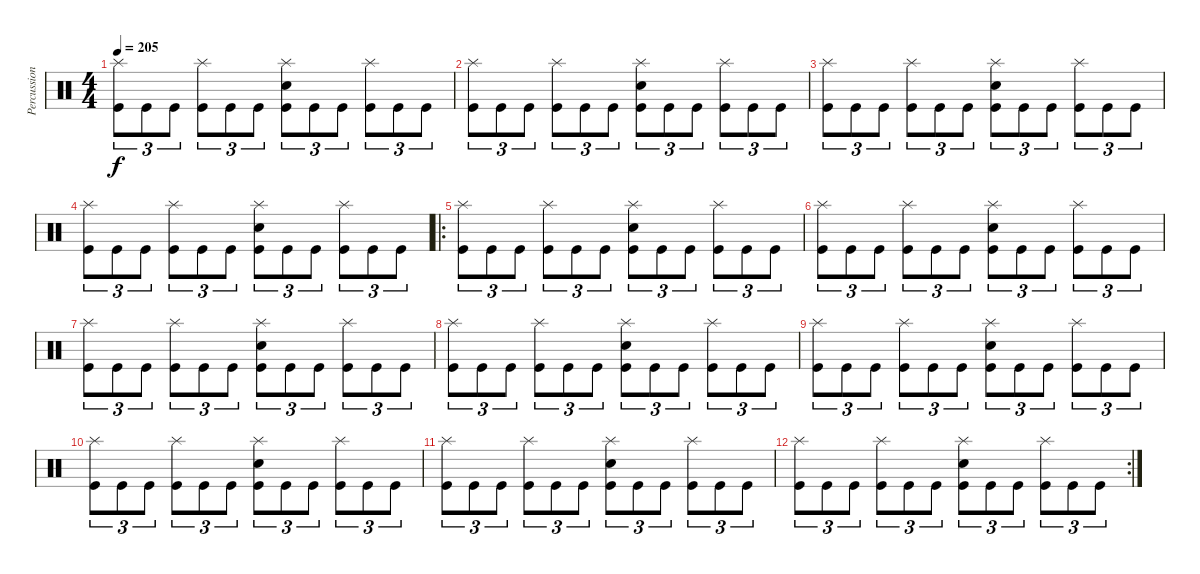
\track ("Percussion" "Percussion") {instrument percussion}
\staff {score}
\articulation defaults
\ts (4 4)
\tempo 205
\clef neutral
\ks c
("Splash (hit)" "Kick (hit)").8{tu (3 2) dy f} "Kick (hit)".8{tu (3 2)} "Kick (hit)".8{tu (3 2)} ("Splash (hit)" "Kick (hit)").8{tu (3 2)} "Kick (hit)".8{tu (3 2)} "Kick (hit)".8{tu (3 2)} ("Splash (hit)" "Snare (hit) 2" "Kick (hit)").8{tu (3 2)} "Kick (hit)".8{tu (3 2)} "Kick (hit)".8{tu (3 2)} ("Splash (hit)" "Kick (hit)").8{tu (3 2)} "Kick (hit)".8{tu (3 2)} "Kick (hit)".8{tu (3 2)} |
("Splash (hit)" "Kick (hit)").8{tu (3 2)} "Kick (hit)".8{tu (3 2)} "Kick (hit)".8{tu (3 2)} ("Splash (hit)" "Kick (hit)").8{tu (3 2)} "Kick (hit)".8{tu (3 2)} "Kick (hit)".8{tu (3 2)} ("Splash (hit)" "Snare (hit) 2" "Kick (hit)").8{tu (3 2)} "Kick (hit)".8{tu (3 2)} "Kick (hit)".8{tu (3 2)} ("Splash (hit)" "Kick (hit)").8{tu (3 2)} "Kick (hit)".8{tu (3 2)} "Kick (hit)".8{tu (3 2)} |
("Splash (hit)" "Kick (hit)").8{tu (3 2)} "Kick (hit)".8{tu (3 2)} "Kick (hit)".8{tu (3 2)} ("Splash (hit)" "Kick (hit)").8{tu (3 2)} "Kick (hit)".8{tu (3 2)} "Kick (hit)".8{tu (3 2)} ("Splash (hit)" "Snare (hit) 2" "Kick (hit)").8{tu (3 2)} "Kick (hit)".8{tu (3 2)} "Kick (hit)".8{tu (3 2)} ("Splash (hit)" "Kick (hit)").8{tu (3 2)} "Kick (hit)".8{tu (3 2)} "Kick (hit)".8{tu (3 2)} |
("Splash (hit)" "Kick (hit)").8{tu (3 2)} "Kick (hit)".8{tu (3 2)} "Kick (hit)".8{tu (3 2)} ("Splash (hit)" "Kick (hit)").8{tu (3 2)} "Kick (hit)".8{tu (3 2)} "Kick (hit)".8{tu (3 2)} ("Splash (hit)" "Snare (hit) 2" "Kick (hit)").8{tu (3 2)} "Kick (hit)".8{tu (3 2)} "Kick (hit)".8{tu (3 2)} ("Splash (hit)" "Kick (hit)").8{tu (3 2)} "Kick (hit)".8{tu (3 2)} "Kick (hit)".8{tu (3 2)} |
\ro
("Splash (hit)" "Kick (hit)").8{tu (3 2)} "Kick (hit)".8{tu (3 2)} "Kick (hit)".8{tu (3 2)} ("Splash (hit)" "Kick (hit)").8{tu (3 2)} "Kick (hit)".8{tu (3 2)} "Kick (hit)".8{tu (3 2)} ("Splash (hit)" "Snare (hit) 2" "Kick (hit)").8{tu (3 2)} "Kick (hit)".8{tu (3 2)} "Kick (hit)".8{tu (3 2)} ("Splash (hit)" "Kick (hit)").8{tu (3 2)} "Kick (hit)".8{tu (3 2)} "Kick (hit)".8{tu (3 2)} |
("Splash (hit)" "Kick (hit)").8{tu (3 2)} "Kick (hit)".8{tu (3 2)} "Kick (hit)".8{tu (3 2)} ("Splash (hit)" "Kick (hit)").8{tu (3 2)} "Kick (hit)".8{tu (3 2)} "Kick (hit)".8{tu (3 2)} ("Splash (hit)" "Snare (hit) 2" "Kick (hit)").8{tu (3 2)} "Kick (hit)".8{tu (3 2)} "Kick (hit)".8{tu (3 2)} ("Splash (hit)" "Kick (hit)").8{tu (3 2)} "Kick (hit)".8{tu (3 2)} "Kick (hit)".8{tu (3 2)} |
("Splash (hit)" "Kick (hit)").8{tu (3 2)} "Kick (hit)".8{tu (3 2)} "Kick (hit)".8{tu (3 2)} ("Splash (hit)" "Kick (hit)").8{tu (3 2)} "Kick (hit)".8{tu (3 2)} "Kick (hit)".8{tu (3 2)} ("Splash (hit)" "Snare (hit) 2" "Kick (hit)").8{tu (3 2)} "Kick (hit)".8{tu (3 2)} "Kick (hit)".8{tu (3 2)} ("Splash (hit)" "Kick (hit)").8{tu (3 2)} "Kick (hit)".8{tu (3 2)} "Kick (hit)".8{tu (3 2)} |
("Splash (hit)" "Kick (hit)").8{tu (3 2)} "Kick (hit)".8{tu (3 2)} "Kick (hit)".8{tu (3 2)} ("Splash (hit)" "Kick (hit)").8{tu (3 2)} "Kick (hit)".8{tu (3 2)} "Kick (hit)".8{tu (3 2)} ("Splash (hit)" "Snare (hit) 2" "Kick (hit)").8{tu (3 2)} "Kick (hit)".8{tu (3 2)} "Kick (hit)".8{tu (3 2)} ("Splash (hit)" "Kick (hit)").8{tu (3 2)} "Kick (hit)".8{tu (3 2)} "Kick (hit)".8{tu (3 2)} |
("Splash (hit)" "Kick (hit)").8{tu (3 2)} "Kick (hit)".8{tu (3 2)} "Kick (hit)".8{tu (3 2)} ("Splash (hit)" "Kick (hit)").8{tu (3 2)} "Kick (hit)".8{tu (3 2)} "Kick (hit)".8{tu (3 2)} ("Splash (hit)" "Snare (hit) 2" "Kick (hit)").8{tu (3 2)} "Kick (hit)".8{tu (3 2)} "Kick (hit)".8{tu (3 2)} ("Splash (hit)" "Kick (hit)").8{tu (3 2)} "Kick (hit)".8{tu (3 2)} "Kick (hit)".8{tu (3 2)} |
("Splash (hit)" "Kick (hit)").8{tu (3 2)} "Kick (hit)".8{tu (3 2)} "Kick (hit)".8{tu (3 2)} ("Splash (hit)" "Kick (hit)").8{tu (3 2)} "Kick (hit)".8{tu (3 2)} "Kick (hit)".8{tu (3 2)} ("Splash (hit)" "Snare (hit) 2" "Kick (hit)").8{tu (3 2)} "Kick (hit)".8{tu (3 2)} "Kick (hit)".8{tu (3 2)} ("Splash (hit)" "Kick (hit)").8{tu (3 2)} "Kick (hit)".8{tu (3 2)} "Kick (hit)".8{tu (3 2)} |
("Splash (hit)" "Kick (hit)").8{tu (3 2)} "Kick (hit)".8{tu (3 2)} "Kick (hit)".8{tu (3 2)} ("Splash (hit)" "Kick (hit)").8{tu (3 2)} "Kick (hit)".8{tu (3 2)} "Kick (hit)".8{tu (3 2)} ("Splash (hit)" "Snare (hit) 2" "Kick (hit)").8{tu (3 2)} "Kick (hit)".8{tu (3 2)} "Kick (hit)".8{tu (3 2)} ("Splash (hit)" "Kick (hit)").8{tu (3 2)} "Kick (hit)".8{tu (3 2)} "Kick (hit)".8{tu (3 2)} |
\rc 2
("Splash (hit)" "Kick (hit)").8{tu (3 2)} "Kick (hit)".8{tu (3 2)} "Kick (hit)".8{tu (3 2)} ("Splash (hit)" "Kick (hit)").8{tu (3 2)} "Kick (hit)".8{tu (3 2)} "Kick (hit)".8{tu (3 2)} ("Splash (hit)" "Snare (hit) 2" "Kick (hit)").8{tu (3 2)} "Kick (hit)".8{tu (3 2)} "Kick (hit)".8{tu (3 2)} ("Splash (hit)" "Kick (hit)").8{tu (3 2)} "Kick (hit)".8{tu (3 2)} "Kick (hit)".8{tu (3 2)}
